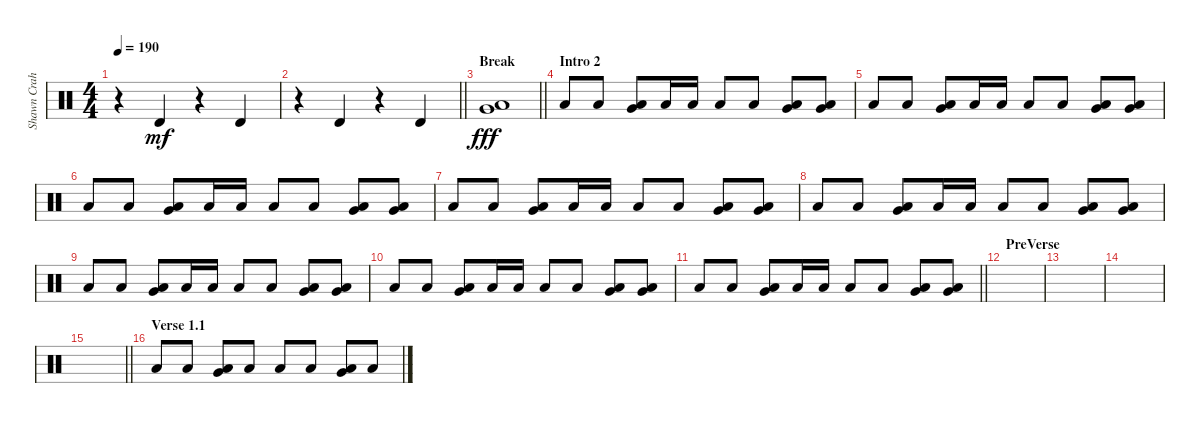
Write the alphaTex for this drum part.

\track ("Shawn Crahan" "Shawn Crah") {instrument percussion}
\staff {score}
\articulation defaults
\ts (4 4)
\tempo 190
\clef neutral
\ks c
r.4{dy mf} "Timbale high (hit)".4 r.4 "Timbale high (hit)".4 |
\barLineRight lightlight
r.4 "Timbale high (hit)".4 r.4 "Timbale high (hit)".4 |
\section ("" "Break")
\barLineRight lightlight
("Very Low Tom (hit)" "Low Floor Tom (hit)").1{dy fff} |
\section ("" "Intro 2")
"Low Floor Tom (hit)".8 "Low Floor Tom (hit)".8 ("Very Low Tom (hit)" "Low Floor Tom (hit)").8 "Low Floor Tom (hit)".16 "Low Floor Tom (hit)".16 "Low Floor Tom (hit)".8 "Low Floor Tom (hit)".8 ("Very Low Tom (hit)" "Low Floor Tom (hit)").8 ("Very Low Tom (hit)" "Low Floor Tom (hit)").8 |
"Low Floor Tom (hit)".8 "Low Floor Tom (hit)".8 ("Very Low Tom (hit)" "Low Floor Tom (hit)").8 "Low Floor Tom (hit)".16 "Low Floor Tom (hit)".16 "Low Floor Tom (hit)".8 "Low Floor Tom (hit)".8 ("Very Low Tom (hit)" "Low Floor Tom (hit)").8 ("Very Low Tom (hit)" "Low Floor Tom (hit)").8 |
"Low Floor Tom (hit)".8 "Low Floor Tom (hit)".8 ("Very Low Tom (hit)" "Low Floor Tom (hit)").8 "Low Floor Tom (hit)".16 "Low Floor Tom (hit)".16 "Low Floor Tom (hit)".8 "Low Floor Tom (hit)".8 ("Very Low Tom (hit)" "Low Floor Tom (hit)").8 ("Very Low Tom (hit)" "Low Floor Tom (hit)").8 |
"Low Floor Tom (hit)".8 "Low Floor Tom (hit)".8 ("Very Low Tom (hit)" "Low Floor Tom (hit)").8 "Low Floor Tom (hit)".16 "Low Floor Tom (hit)".16 "Low Floor Tom (hit)".8 "Low Floor Tom (hit)".8 ("Very Low Tom (hit)" "Low Floor Tom (hit)").8 ("Very Low Tom (hit)" "Low Floor Tom (hit)").8 |
"Low Floor Tom (hit)".8 "Low Floor Tom (hit)".8 ("Very Low Tom (hit)" "Low Floor Tom (hit)").8 "Low Floor Tom (hit)".16 "Low Floor Tom (hit)".16 "Low Floor Tom (hit)".8 "Low Floor Tom (hit)".8 ("Very Low Tom (hit)" "Low Floor Tom (hit)").8 ("Very Low Tom (hit)" "Low Floor Tom (hit)").8 |
"Low Floor Tom (hit)".8 "Low Floor Tom (hit)".8 ("Very Low Tom (hit)" "Low Floor Tom (hit)").8 "Low Floor Tom (hit)".16 "Low Floor Tom (hit)".16 "Low Floor Tom (hit)".8 "Low Floor Tom (hit)".8 ("Very Low Tom (hit)" "Low Floor Tom (hit)").8 ("Very Low Tom (hit)" "Low Floor Tom (hit)").8 |
"Low Floor Tom (hit)".8 "Low Floor Tom (hit)".8 ("Very Low Tom (hit)" "Low Floor Tom (hit)").8 "Low Floor Tom (hit)".16 "Low Floor Tom (hit)".16 "Low Floor Tom (hit)".8 "Low Floor Tom (hit)".8 ("Very Low Tom (hit)" "Low Floor Tom (hit)").8 ("Very Low Tom (hit)" "Low Floor Tom (hit)").8 |
\barLineRight lightlight "Low Floor Tom (hit)".8 "Low Floor Tom (hit)".8
("Very Low Tom (hit)" "Low Floor Tom (hit)").8 "Low Floor Tom (hit)".16 "Low Floor Tom (hit)".16 "Low Floor Tom (hit)".8 "Low Floor Tom (hit)".8 ("Very Low Tom (hit)" "Low Floor Tom (hit)").8 ("Very Low Tom (hit)" "Low Floor Tom (hit)").8 |
\section ("" "PreVerse")
|
|
|
\barLineRight lightlight
|
\section ("" "Verse 1.1")
"Low Floor Tom (hit)".8 "Low Floor Tom (hit)".8 ("Very Low Tom (hit)" "Low Floor Tom (hit)").8 "Low Floor Tom (hit)".8 "Low Floor Tom (hit)".8 "Low Floor Tom (hit)".8 ("Very Low Tom (hit)" "Low Floor Tom (hit)").8 "Low Floor Tom (hit)".8
